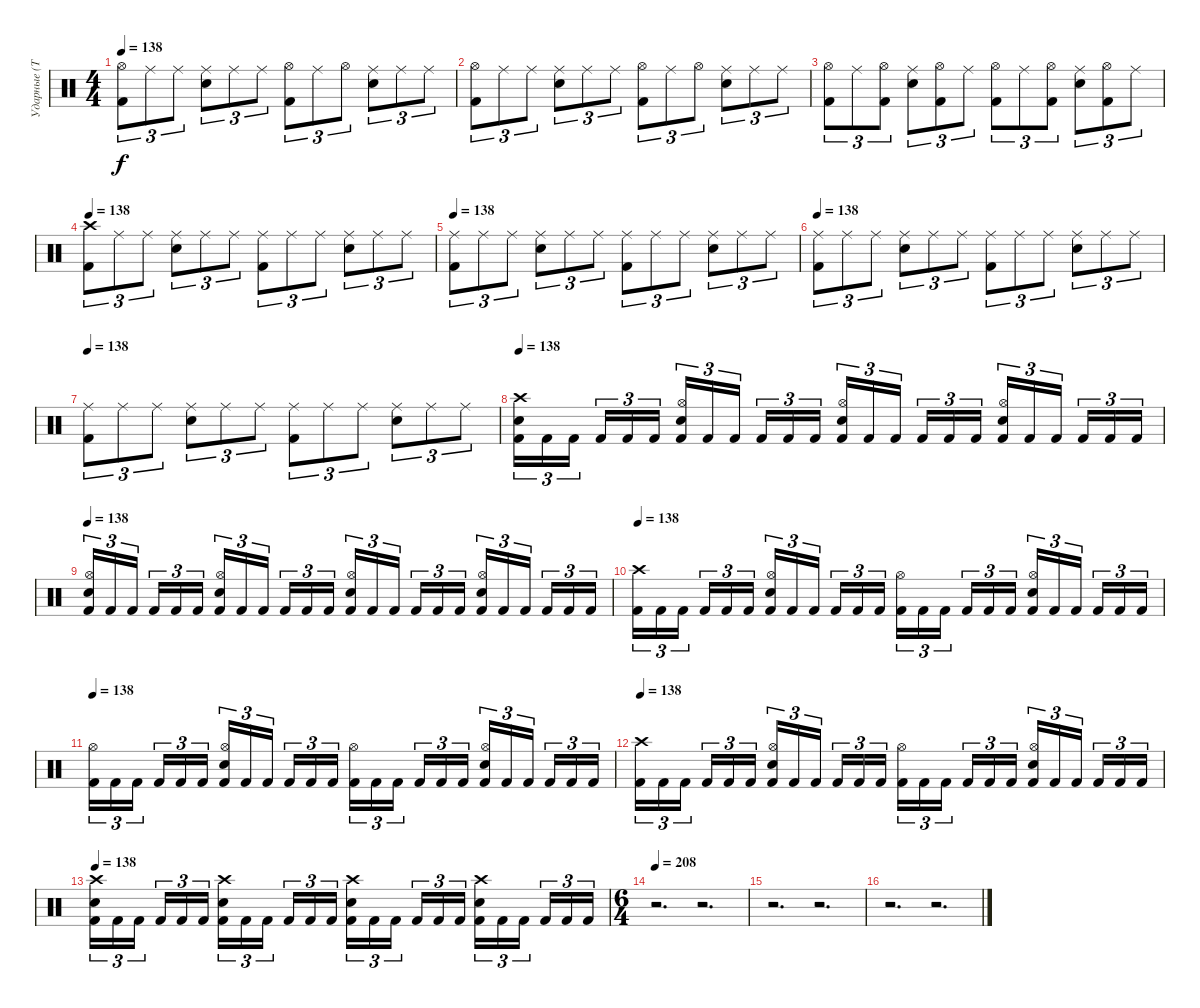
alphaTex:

\track ("Ударные (Тьодальв)" "Ударные (Т") {instrument percussion}
\staff {score}
\articulation defaults
\ts (4 4)
\tempo 138
\clef neutral
\ks c
("Kick (hit) 2" "Hi-Hat (open)").8{tu (3 2) dy f} "Ride (middle)".8{tu (3 2)} "Ride (middle)".8{tu (3 2)} ("Snare (hit) 2" "Ride (middle)").8{tu (3 2)} "Ride (middle)".8{tu (3 2)} "Ride (middle)".8{tu (3 2)} ("Kick (hit) 2" "Hi-Hat (open)").8{tu (3 2)} "Ride (middle)".8{tu (3 2)} "Hi-Hat (open)".8{tu (3 2)} ("Snare (hit) 2" "Ride (middle)").8{tu (3 2)} "Ride (middle)".8{tu (3 2)} "Ride (middle)".8{tu (3 2)} |
("Kick (hit) 2" "Hi-Hat (open)").8{tu (3 2)} "Ride (middle)".8{tu (3 2)} "Ride (middle)".8{tu (3 2)} ("Snare (hit) 2" "Ride (middle)").8{tu (3 2)} "Ride (middle)".8{tu (3 2)} "Ride (middle)".8{tu (3 2)} ("Kick (hit) 2" "Hi-Hat (open)").8{tu (3 2)} "Ride (middle)".8{tu (3 2)} "Hi-Hat (open)".8{tu (3 2)} ("Snare (hit) 2" "Ride (middle)").8{tu (3 2)} "Ride (middle)".8{tu (3 2)} "Ride (middle)".8{tu (3 2)} |
("Kick (hit) 2" "Hi-Hat (open)").8{tu (3 2)} "Ride (middle)".8{tu (3 2)} ("Kick (hit) 2" "Hi-Hat (open)").8{tu (3 2)} ("Snare (hit) 2" "Ride (middle)").8{tu (3 2)} ("Kick (hit) 2" "Hi-Hat (open)").8{tu (3 2)} "Ride (middle)".8{tu (3 2)} ("Kick (hit) 2" "Hi-Hat (open)").8{tu (3 2)} "Ride (middle)".8{tu (3 2)} ("Kick (hit) 2" "Hi-Hat (open)").8{tu (3 2)} ("Snare (hit) 2" "Ride (middle)").8{tu (3 2)} ("Kick (hit) 2" "Hi-Hat (open)").8{tu (3 2)} "Ride (middle)".8{tu (3 2)} |
\tempo 138
("Kick (hit) 2" "Crash high (hit)").8{tu (3 2)} "Ride (middle)".8{tu (3 2)} "Ride (middle)".8{tu (3 2)} ("Snare (hit) 2" "Ride (middle)").8{tu (3 2)} "Ride (middle)".8{tu (3 2)} "Ride (middle)".8{tu (3 2)} ("Kick (hit) 2" "Ride (middle)").8{tu (3 2)} "Ride (middle)".8{tu (3 2)} "Ride (middle)".8{tu (3 2)} ("Snare (hit) 2" "Ride (middle)").8{tu (3 2)} "Ride (middle)".8{tu (3 2)} "Ride (middle)".8{tu (3 2)} |
\tempo 138
("Kick (hit) 2" "Ride (middle)").8{tu (3 2)} "Ride (middle)".8{tu (3 2)} "Ride (middle)".8{tu (3 2)} ("Snare (hit) 2" "Ride (middle)").8{tu (3 2)} "Ride (middle)".8{tu (3 2)} "Ride (middle)".8{tu (3 2)} ("Kick (hit) 2" "Ride (middle)").8{tu (3 2)} "Ride (middle)".8{tu (3 2)} "Ride (middle)".8{tu (3 2)} ("Snare (hit) 2" "Ride (middle)").8{tu (3 2)} "Ride (middle)".8{tu (3 2)} "Ride (middle)".8{tu (3 2)} |
\tempo 138
("Kick (hit) 2" "Ride (middle)").8{tu (3 2)} "Ride (middle)".8{tu (3 2)} "Ride (middle)".8{tu (3 2)} ("Snare (hit) 2" "Ride (middle)").8{tu (3 2)} "Ride (middle)".8{tu (3 2)} "Ride (middle)".8{tu (3 2)} ("Kick (hit) 2" "Ride (middle)").8{tu (3 2)} "Ride (middle)".8{tu (3 2)} "Ride (middle)".8{tu (3 2)} ("Snare (hit) 2" "Ride (middle)").8{tu (3 2)} "Ride (middle)".8{tu (3 2)} "Ride (middle)".8{tu (3 2)} |
\tempo 138
("Kick (hit) 2" "Ride (middle)").8{tu (3 2)} "Ride (middle)".8{tu (3 2)} "Ride (middle)".8{tu (3 2)} ("Snare (hit) 2" "Ride (middle)").8{tu (3 2)} "Ride (middle)".8{tu (3 2)} "Ride (middle)".8{tu (3 2)} ("Kick (hit) 2" "Ride (middle)").8{tu (3 2)} "Ride (middle)".8{tu (3 2)} "Ride (middle)".8{tu (3 2)} ("Snare (hit) 2" "Ride (middle)").8{tu (3 2)} "Ride (middle)".8{tu (3 2)} "Ride (middle)".8{tu (3 2)} |
\tempo 138
("Kick (hit) 2" "Snare (hit) 2" "Crash high (hit)").16{tu (3 2)} "Kick (hit) 2".16{tu (3 2)} "Kick (hit) 2".16{tu (3 2) beam splitsecondary} "Kick (hit) 2".16{tu (3 2)} "Kick (hit) 2".16{tu (3 2)} "Kick (hit) 2".16{tu (3 2)} ("Kick (hit) 2" "Snare (hit) 2" "Hi-Hat (open)").16{tu (3 2)} "Kick (hit) 2".16{tu (3 2)} "Kick (hit) 2".16{tu (3 2) beam splitsecondary} "Kick (hit) 2".16{tu (3 2)} "Kick (hit) 2".16{tu (3 2)} "Kick (hit) 2".16{tu (3 2)} ("Kick (hit) 2" "Snare (hit) 2" "Hi-Hat (open)").16{tu (3 2)} "Kick (hit) 2".16{tu (3 2)} "Kick (hit) 2".16{tu (3 2) beam splitsecondary} "Kick (hit) 2".16{tu (3 2)} "Kick (hit) 2".16{tu (3 2)} "Kick (hit) 2".16{tu (3 2)} ("Kick (hit) 2" "Snare (hit) 2" "Hi-Hat (open)").16{tu (3 2)} "Kick (hit) 2".16{tu (3 2)} "Kick (hit) 2".16{tu (3 2) beam splitsecondary} "Kick (hit) 2".16{tu (3 2)} "Kick (hit) 2".16{tu (3 2)} "Kick (hit) 2".16{tu (3 2)} |
\tempo 138
("Kick (hit) 2" "Snare (hit) 2" "Hi-Hat (open)").16{tu (3 2)} "Kick (hit) 2".16{tu (3 2)} "Kick (hit) 2".16{tu (3 2) beam splitsecondary} "Kick (hit) 2".16{tu (3 2)} "Kick (hit) 2".16{tu (3 2)} "Kick (hit) 2".16{tu (3 2)} ("Kick (hit) 2" "Snare (hit) 2" "Hi-Hat (open)").16{tu (3 2)} "Kick (hit) 2".16{tu (3 2)} "Kick (hit) 2".16{tu (3 2) beam splitsecondary} "Kick (hit) 2".16{tu (3 2)} "Kick (hit) 2".16{tu (3 2)} "Kick (hit) 2".16{tu (3 2)} ("Kick (hit) 2" "Snare (hit) 2" "Hi-Hat (open)").16{tu (3 2)} "Kick (hit) 2".16{tu (3 2)} "Kick (hit) 2".16{tu (3 2) beam splitsecondary} "Kick (hit) 2".16{tu (3 2)} "Kick (hit) 2".16{tu (3 2)} "Kick (hit) 2".16{tu (3 2)} ("Kick (hit) 2" "Snare (hit) 2" "Hi-Hat (open)").16{tu (3 2)} "Kick (hit) 2".16{tu (3 2)} "Kick (hit) 2".16{tu (3 2) beam splitsecondary} "Kick (hit) 2".16{tu (3 2)} "Kick (hit) 2".16{tu (3 2)} "Kick (hit) 2".16{tu (3 2)} |
\tempo 138
("Kick (hit) 2" "Crash high (hit)").16{tu (3 2)} "Kick (hit) 2".16{tu (3 2)} "Kick (hit) 2".16{tu (3 2) beam splitsecondary} "Kick (hit) 2".16{tu (3 2)} "Kick (hit) 2".16{tu (3 2)} "Kick (hit) 2".16{tu (3 2)} ("Kick (hit) 2" "Snare (hit) 2" "Hi-Hat (open)").16{tu (3 2)} "Kick (hit) 2".16{tu (3 2)} "Kick (hit) 2".16{tu (3 2) beam splitsecondary} "Kick (hit) 2".16{tu (3 2)} "Kick (hit) 2".16{tu (3 2)} "Kick (hit) 2".16{tu (3 2)} ("Kick (hit) 2" "Hi-Hat (open)").16{tu (3 2)} "Kick (hit) 2".16{tu (3 2)} "Kick (hit) 2".16{tu (3 2) beam splitsecondary} "Kick (hit) 2".16{tu (3 2)} "Kick (hit) 2".16{tu (3 2)} "Kick (hit) 2".16{tu (3 2)} ("Kick (hit) 2" "Snare (hit) 2" "Hi-Hat (open)").16{tu (3 2)} "Kick (hit) 2".16{tu (3 2)} "Kick (hit) 2".16{tu (3 2) beam splitsecondary} "Kick (hit) 2".16{tu (3 2)} "Kick (hit) 2".16{tu (3 2)} "Kick (hit) 2".16{tu (3 2)} |
\tempo 138
("Kick (hit) 2" "Hi-Hat (open)").16{tu (3 2)} "Kick (hit) 2".16{tu (3 2)} "Kick (hit) 2".16{tu (3 2) beam splitsecondary} "Kick (hit) 2".16{tu (3 2)} "Kick (hit) 2".16{tu (3 2)} "Kick (hit) 2".16{tu (3 2)} ("Kick (hit) 2" "Snare (hit) 2" "Hi-Hat (open)").16{tu (3 2)} "Kick (hit) 2".16{tu (3 2)} "Kick (hit) 2".16{tu (3 2) beam splitsecondary} "Kick (hit) 2".16{tu (3 2)} "Kick (hit) 2".16{tu (3 2)} "Kick (hit) 2".16{tu (3 2)} ("Kick (hit) 2" "Hi-Hat (open)").16{tu (3 2)} "Kick (hit) 2".16{tu (3 2)} "Kick (hit) 2".16{tu (3 2) beam splitsecondary} "Kick (hit) 2".16{tu (3 2)} "Kick (hit) 2".16{tu (3 2)} "Kick (hit) 2".16{tu (3 2)} ("Kick (hit) 2" "Snare (hit) 2" "Hi-Hat (open)").16{tu (3 2)} "Kick (hit) 2".16{tu (3 2)} "Kick (hit) 2".16{tu (3 2) beam splitsecondary} "Kick (hit) 2".16{tu (3 2)} "Kick (hit) 2".16{tu (3 2)} "Kick (hit) 2".16{tu (3 2)} |
\tempo 138
("Kick (hit) 2" "Crash high (hit)").16{tu (3 2)} "Kick (hit) 2".16{tu (3 2)} "Kick (hit) 2".16{tu (3 2) beam splitsecondary} "Kick (hit) 2".16{tu (3 2)} "Kick (hit) 2".16{tu (3 2)} "Kick (hit) 2".16{tu (3 2)} ("Kick (hit) 2" "Snare (hit) 2" "Hi-Hat (open)").16{tu (3 2)} "Kick (hit) 2".16{tu (3 2)} "Kick (hit) 2".16{tu (3 2) beam splitsecondary} "Kick (hit) 2".16{tu (3 2)} "Kick (hit) 2".16{tu (3 2)} "Kick (hit) 2".16{tu (3 2)} ("Kick (hit) 2" "Hi-Hat (open)").16{tu (3 2)} "Kick (hit) 2".16{tu (3 2)} "Kick (hit) 2".16{tu (3 2) beam splitsecondary} "Kick (hit) 2".16{tu (3 2)} "Kick (hit) 2".16{tu (3 2)} "Kick (hit) 2".16{tu (3 2)} ("Kick (hit) 2" "Snare (hit) 2" "Hi-Hat (open)").16{tu (3 2)} "Kick (hit) 2".16{tu (3 2)} "Kick (hit) 2".16{tu (3 2) beam splitsecondary} "Kick (hit) 2".16{tu (3 2)} "Kick (hit) 2".16{tu (3 2)} "Kick (hit) 2".16{tu (3 2)} |
\tempo 138
("Kick (hit) 2" "Snare (hit) 2" "Crash high (hit)").16{tu (3 2)} "Kick (hit) 2".16{tu (3 2)} "Kick (hit) 2".16{tu (3 2) beam splitsecondary} "Kick (hit) 2".16{tu (3 2)} "Kick (hit) 2".16{tu (3 2)} "Kick (hit) 2".16{tu (3 2)} ("Kick (hit) 2" "Snare (hit) 2" "Crash high (hit)").16{tu (3 2)} "Kick (hit) 2".16{tu (3 2)} "Kick (hit) 2".16{tu (3 2) beam splitsecondary} "Kick (hit) 2".16{tu (3 2)} "Kick (hit) 2".16{tu (3 2)} "Kick (hit) 2".16{tu (3 2)} ("Kick (hit) 2" "Snare (hit) 2" "Crash high (hit)").16{tu (3 2)} "Kick (hit) 2".16{tu (3 2)} "Kick (hit) 2".16{tu (3 2) beam splitsecondary} "Kick (hit) 2".16{tu (3 2)} "Kick (hit) 2".16{tu (3 2)} "Kick (hit) 2".16{tu (3 2)} ("Kick (hit) 2" "Snare (hit) 2" "Crash high (hit)").16{tu (3 2)} "Kick (hit) 2".16{tu (3 2)} "Kick (hit) 2".16{tu (3 2) beam splitsecondary} "Kick (hit) 2".16{tu (3 2)} "Kick (hit) 2".16{tu (3 2)} "Kick (hit) 2".16{tu (3 2)} |
\ts (6 4)
\tempo 208
r.2{d} r.2{d} |
r.2{d} r.2{d} |
r.2{d} r.2{d}
